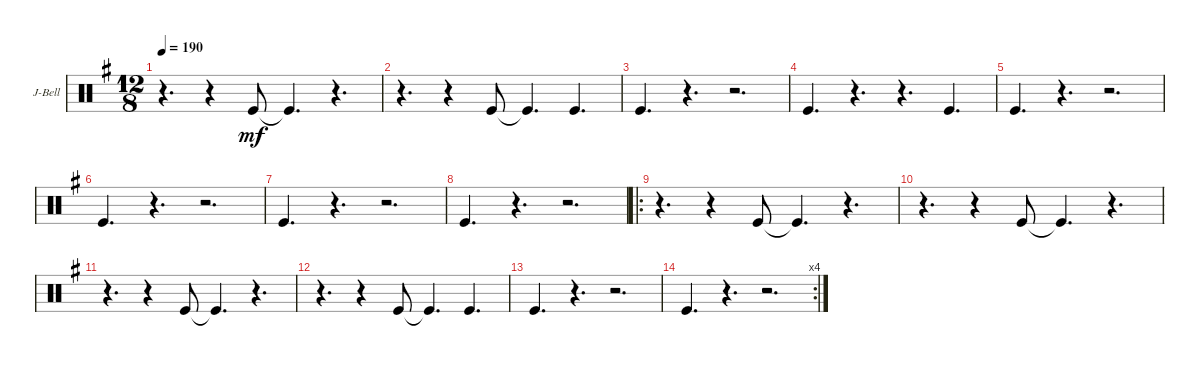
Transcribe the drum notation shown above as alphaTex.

\defaultSystemsLayout 4
\bracketExtendMode groupsimilarinstruments
\firstSystemTrackNameOrientation horizontal
\otherSystemsTrackNameOrientation horizontal
\track ("Jingle Bell" "J-Bell") {instrument percussion}
\staff {score}
\articulation defaults
\ts (12 8)
\tempo 190
\clef neutral
\ks g
r.4{d dy mf} r.4 "Kick (hit)".8 "Kick (hit)"{t}.4{d} r.4{d} |
r.4{d} r.4 "Kick (hit)".8 "Kick (hit)"{t}.4{d} "Kick (hit)".4{d} |
"Kick (hit)".4{d} r.4{d} r.2{d} |
"Kick (hit)".4{d} r.4{d} r.4{d} "Kick (hit)".4{d} |
"Kick (hit)".4{d} r.4{d} r.2{d} |
"Kick (hit)".4{d} r.4{d} r.2{d} |
"Kick (hit)".4{d} r.4{d} r.2{d} |
"Kick (hit)".4{d} r.4{d} r.2{d} |
\ro
r.4{d} r.4 "Kick (hit)".8 "Kick (hit)"{t}.4{d} r.4{d} |
r.4{d} r.4 "Kick (hit)".8 "Kick (hit)"{t}.4{d} r.4{d} |
r.4{d} r.4 "Kick (hit)".8 "Kick (hit)"{t}.4{d} r.4{d} |
r.4{d} r.4 "Kick (hit)".8 "Kick (hit)"{t}.4{d} "Kick (hit)".4{d} |
"Kick (hit)".4{d} r.4{d} r.2{d} |
\rc 4 "Kick (hit)".4{d}
r.4{d} r.2{d}
